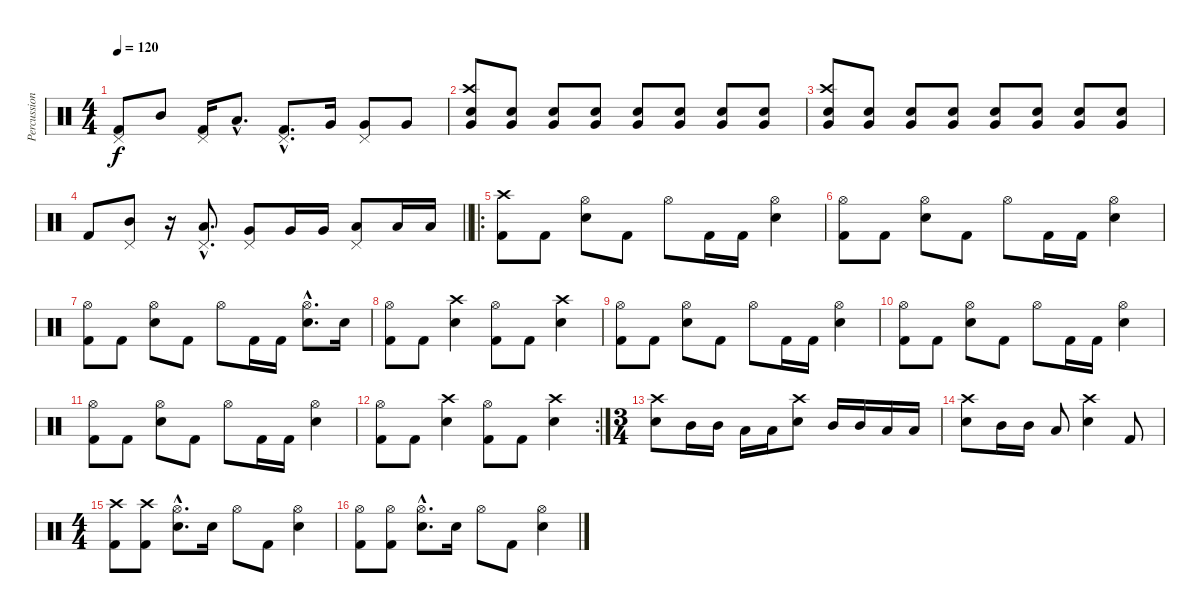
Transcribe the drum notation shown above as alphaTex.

\track ("Percussion" "Percussion") {instrument percussion}
\staff {score}
\articulation defaults
\ts (4 4)
\tempo 120
\clef neutral
\ks c
("Pedal Hi-Hat (hit)" "Kick (hit) 2").8{dy f} "Mid Tom (hit)".8 ("Pedal Hi-Hat (hit)" "Kick (hit) 2").16 "Low Tom (hit)"{hac}.8{d} ("Pedal Hi-Hat (hit)"{hac} "Kick (hit) 2"{hac}).8{d} "Very Low Tom (hit)".16 ("Pedal Hi-Hat (hit)" "Very Low Tom (hit)").8 "Very Low Tom (hit)".8 |
("Crash high (hit)" "Very Low Tom (hit)" "Snare (hit) 2").8 ("Very Low Tom (hit)" "Snare (hit) 2").8 ("Very Low Tom (hit)" "Snare (hit) 2").8 ("Very Low Tom (hit)" "Snare (hit) 2").8 ("Very Low Tom (hit)" "Snare (hit) 2").8 ("Very Low Tom (hit)" "Snare (hit) 2").8 ("Very Low Tom (hit)" "Snare (hit) 2").8 ("Very Low Tom (hit)" "Snare (hit) 2").8 |
("Crash high (hit)" "Very Low Tom (hit)" "Snare (hit) 2").8 ("Very Low Tom (hit)" "Snare (hit) 2").8 ("Very Low Tom (hit)" "Snare (hit) 2").8 ("Very Low Tom (hit)" "Snare (hit) 2").8 ("Very Low Tom (hit)" "Snare (hit) 2").8 ("Very Low Tom (hit)" "Snare (hit) 2").8 ("Very Low Tom (hit)" "Snare (hit) 2").8 ("Very Low Tom (hit)" "Snare (hit) 2").8 |
\barLineRight lightlight "Kick (hit) 2".8
("Pedal Hi-Hat (hit)" "Mid Tom (hit)").8 r.16 ("Pedal Hi-Hat (hit)"{hac} "Low Tom (hit)"{hac}).8{d} ("Pedal Hi-Hat (hit)" "Very Low Tom (hit)").8 "Very Low Tom (hit)".16 "Very Low Tom (hit)".16 ("Pedal Hi-Hat (hit)" "Low Floor Tom (hit)").8 "Low Floor Tom (hit)".16 "Low Floor Tom (hit)".16 |
\ro
("Crash high (hit)" "Kick (hit) 2").8 "Kick (hit) 2".8 ("Hi-Hat (open)" "Snare (hit) 2").8 "Kick (hit) 2".8 "Hi-Hat (open)".8 "Kick (hit) 2".16 "Kick (hit) 2".16 ("Hi-Hat (open)" "Snare (hit) 2").4 |
("Hi-Hat (open)" "Kick (hit) 2").8 "Kick (hit) 2".8 ("Hi-Hat (open)" "Snare (hit) 2").8 "Kick (hit) 2".8 "Hi-Hat (open)".8 "Kick (hit) 2".16 "Kick (hit) 2".16 ("Hi-Hat (open)" "Snare (hit) 2").4 |
("Hi-Hat (open)" "Kick (hit) 2").8 "Kick (hit) 2".8 ("Hi-Hat (open)" "Snare (hit) 2").8 "Kick (hit) 2".8 "Hi-Hat (open)".8 "Kick (hit) 2".16 "Kick (hit) 2".16 ("Hi-Hat (open)"{hac} "Snare (hit) 2"{hac}).8{d} "Snare (hit) 2".16 |
("Hi-Hat (open)" "Kick (hit) 2").8 "Kick (hit) 2".8 ("Crash high (hit)" "Snare (hit) 2").4 ("Hi-Hat (open)" "Kick (hit) 2").8 "Kick (hit) 2".8 ("Crash high (hit)" "Snare (hit) 2").4 |
("Hi-Hat (open)" "Kick (hit) 2").8 "Kick (hit) 2".8 ("Hi-Hat (open)" "Snare (hit) 2").8 "Kick (hit) 2".8 "Hi-Hat (open)".8 "Kick (hit) 2".16 "Kick (hit) 2".16 ("Hi-Hat (open)" "Snare (hit) 2").4 |
("Hi-Hat (open)" "Kick (hit) 2").8 "Kick (hit) 2".8 ("Hi-Hat (open)" "Snare (hit) 2").8 "Kick (hit) 2".8 "Hi-Hat (open)".8 "Kick (hit) 2".16 "Kick (hit) 2".16 ("Hi-Hat (open)" "Snare (hit) 2").4 |
("Hi-Hat (open)" "Kick (hit) 2").8 "Kick (hit) 2".8 ("Hi-Hat (open)" "Snare (hit) 2").8 "Kick (hit) 2".8 "Hi-Hat (open)".8 "Kick (hit) 2".16 "Kick (hit) 2".16 ("Hi-Hat (open)" "Snare (hit) 2").4 |
\rc 2
("Hi-Hat (open)" "Kick (hit) 2").8 "Kick (hit) 2".8 ("Crash high (hit)" "Snare (hit) 2").4 ("Hi-Hat (open)" "Kick (hit) 2").8 "Kick (hit) 2".8 ("Crash high (hit)" "Snare (hit) 2").4 |
\ts (3 4)
("Crash high (hit)" "Snare (hit) 2").8 "Mid Tom (hit)".16 "Mid Tom (hit)".16 "Low Tom (hit)".16 "Low Tom (hit)".16 ("Crash high (hit)" "Snare (hit) 2").8 "Mid Tom (hit)".16 "Mid Tom (hit)".16 "Low Tom (hit)".16 "Low Tom (hit)".16 |
("Crash high (hit)" "Snare (hit) 2").8 "Mid Tom (hit)".16 "Mid Tom (hit)".16 "Low Tom (hit)".8 ("Crash high (hit)" "Snare (hit) 2").4 "Kick (hit) 2".8 |
\ts (4 4)
("Crash high (hit)" "Kick (hit) 2").8 ("Crash high (hit)" "Kick (hit) 2").8 ("Hi-Hat (open)"{hac} "Snare (hit) 2"{hac}).8{d} "Snare (hit) 2".16 "Hi-Hat (open)".8 "Kick (hit) 2".8 ("Hi-Hat (open)" "Snare (hit) 2").4 |
("Hi-Hat (open)" "Kick (hit) 2").8 ("Hi-Hat (open)" "Kick (hit) 2").8 ("Hi-Hat (open)"{hac} "Snare (hit) 2"{hac}).8{d} "Snare (hit) 2".16 "Hi-Hat (open)".8 "Kick (hit) 2".8 ("Hi-Hat (open)" "Snare (hit) 2").4
